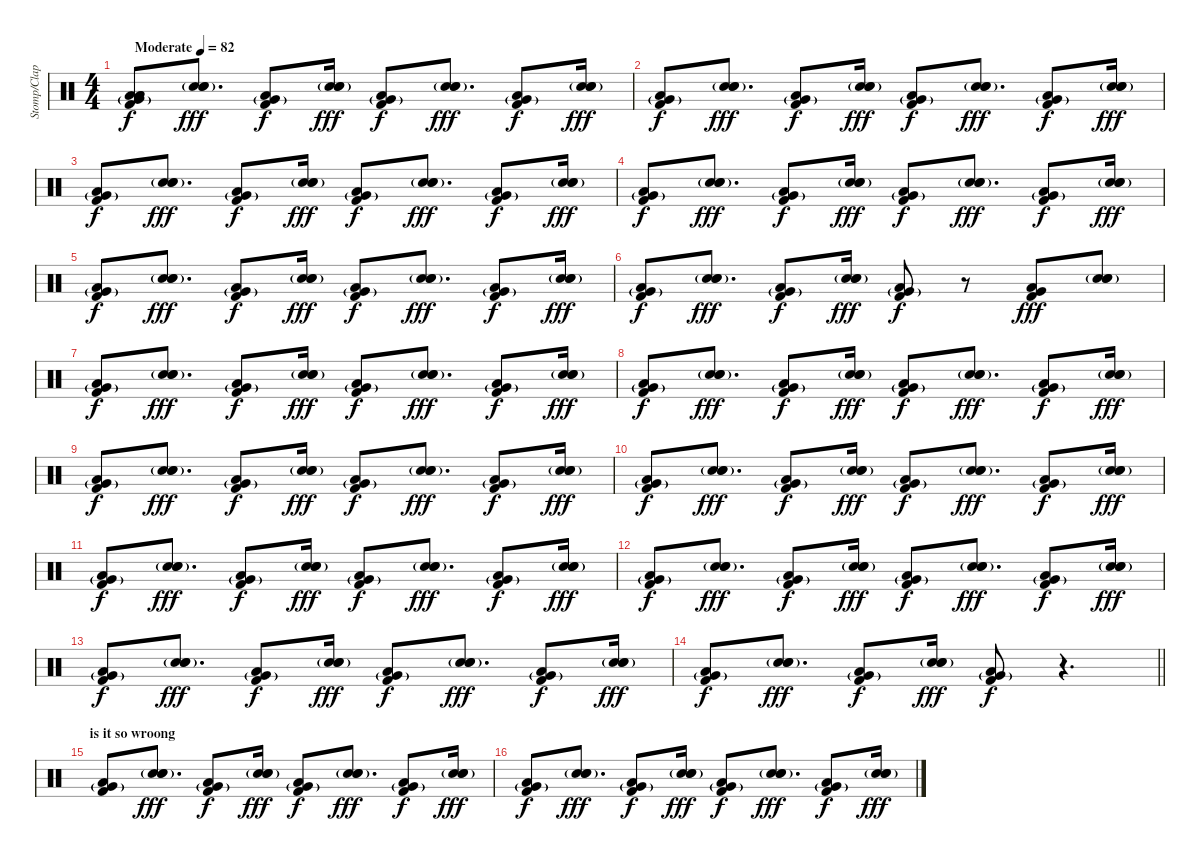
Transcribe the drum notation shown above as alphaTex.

\track ("Stomp/Clap" "Stomp/Clap") {instrument percussion}
\staff {score}
\articulation defaults
\ts (4 4)
\tempo (82 "Moderate")
\clef neutral
\ks c
("Kick (hit) 2" "Low Floor Tom (hit)" "Very Low Tom (hit)"{g} "Low Floor Tom (hit)" "Low Floor Tom (hit)").8{dy f} ("Hand Clap (hit)" "Snare (hit) 2"{g} "Hand Clap (hit)").8{d dy fff} ("Kick (hit) 2" "Low Floor Tom (hit)" "Very Low Tom (hit)"{g}).8{dy f} ("Hand Clap (hit)" "Snare (hit) 2"{g} "Hand Clap (hit)").16{dy fff} ("Kick (hit) 2" "Low Floor Tom (hit)" "Very Low Tom (hit)"{g}).8{dy f} ("Hand Clap (hit)" "Snare (hit) 2"{g} "Hand Clap (hit)").8{d dy fff} ("Kick (hit) 2" "Low Floor Tom (hit)" "Very Low Tom (hit)"{g}).8{dy f} ("Hand Clap (hit)" "Snare (hit) 2"{g} "Hand Clap (hit)").16{dy fff} |
("Kick (hit) 2" "Low Floor Tom (hit)" "Very Low Tom (hit)"{g}).8{dy f} ("Hand Clap (hit)" "Snare (hit) 2"{g} "Hand Clap (hit)").8{d dy fff} ("Kick (hit) 2" "Low Floor Tom (hit)" "Very Low Tom (hit)"{g}).8{dy f} ("Hand Clap (hit)" "Snare (hit) 2"{g} "Hand Clap (hit)").16{dy fff} ("Kick (hit) 2" "Low Floor Tom (hit)" "Very Low Tom (hit)"{g}).8{dy f} ("Hand Clap (hit)" "Snare (hit) 2"{g} "Hand Clap (hit)").8{d dy fff} ("Kick (hit) 2" "Low Floor Tom (hit)" "Very Low Tom (hit)"{g}).8{dy f} ("Hand Clap (hit)" "Snare (hit) 2"{g} "Hand Clap (hit)").16{dy fff} |
("Kick (hit) 2" "Low Floor Tom (hit)" "Very Low Tom (hit)"{g}).8{dy f} ("Hand Clap (hit)" "Snare (hit) 2"{g} "Hand Clap (hit)").8{d dy fff} ("Kick (hit) 2" "Low Floor Tom (hit)" "Very Low Tom (hit)"{g}).8{dy f} ("Hand Clap (hit)" "Snare (hit) 2"{g} "Hand Clap (hit)").16{dy fff} ("Kick (hit) 2" "Low Floor Tom (hit)" "Very Low Tom (hit)"{g}).8{dy f} ("Hand Clap (hit)" "Snare (hit) 2"{g} "Hand Clap (hit)").8{d dy fff} ("Kick (hit) 2" "Low Floor Tom (hit)" "Very Low Tom (hit)"{g}).8{dy f} ("Hand Clap (hit)" "Snare (hit) 2"{g} "Hand Clap (hit)").16{dy fff} |
("Kick (hit) 2" "Low Floor Tom (hit)" "Very Low Tom (hit)"{g}).8{dy f} ("Hand Clap (hit)" "Snare (hit) 2"{g} "Hand Clap (hit)").8{d dy fff} ("Kick (hit) 2" "Low Floor Tom (hit)" "Very Low Tom (hit)"{g}).8{dy f} ("Hand Clap (hit)" "Snare (hit) 2"{g} "Hand Clap (hit)").16{dy fff} ("Kick (hit) 2" "Low Floor Tom (hit)" "Very Low Tom (hit)"{g}).8{dy f} ("Hand Clap (hit)" "Snare (hit) 2"{g} "Hand Clap (hit)").8{d dy fff} ("Kick (hit) 2" "Low Floor Tom (hit)" "Very Low Tom (hit)"{g}).8{dy f} ("Hand Clap (hit)" "Snare (hit) 2"{g} "Hand Clap (hit)").16{dy fff} |
("Kick (hit) 2" "Low Floor Tom (hit)" "Very Low Tom (hit)"{g}).8{dy f} ("Hand Clap (hit)" "Snare (hit) 2"{g} "Hand Clap (hit)").8{d dy fff} ("Kick (hit) 2" "Low Floor Tom (hit)" "Very Low Tom (hit)"{g}).8{dy f} ("Hand Clap (hit)" "Snare (hit) 2"{g} "Hand Clap (hit)").16{dy fff} ("Kick (hit) 2" "Low Floor Tom (hit)" "Very Low Tom (hit)"{g}).8{dy f} ("Hand Clap (hit)" "Snare (hit) 2"{g} "Hand Clap (hit)").8{d dy fff} ("Kick (hit) 2" "Low Floor Tom (hit)" "Very Low Tom (hit)"{g}).8{dy f} ("Hand Clap (hit)" "Snare (hit) 2"{g} "Hand Clap (hit)").16{dy fff} |
("Kick (hit) 2" "Low Floor Tom (hit)" "Very Low Tom (hit)"{g}).8{dy f} ("Hand Clap (hit)" "Snare (hit) 2"{g} "Hand Clap (hit)").8{d dy fff} ("Kick (hit) 2" "Low Floor Tom (hit)" "Very Low Tom (hit)"{g}).8{dy f} ("Hand Clap (hit)" "Snare (hit) 2"{g} "Hand Clap (hit)").16{dy fff} ("Kick (hit) 2" "Low Floor Tom (hit)" "Very Low Tom (hit)"{g}).8{dy f} r.8 ("Kick (hit) 2" "Low Floor Tom (hit)" "Very Low Tom (hit)").8{dy fff} ("Hand Clap (hit)" "Snare (hit) 2"{g} "Hand Clap (hit)").8 |
("Kick (hit) 2" "Low Floor Tom (hit)" "Very Low Tom (hit)"{g}).8{dy f} ("Hand Clap (hit)" "Snare (hit) 2"{g} "Hand Clap (hit)").8{d dy fff} ("Kick (hit) 2" "Low Floor Tom (hit)" "Very Low Tom (hit)"{g}).8{dy f} ("Hand Clap (hit)" "Snare (hit) 2"{g} "Hand Clap (hit)").16{dy fff} ("Kick (hit) 2" "Low Floor Tom (hit)" "Very Low Tom (hit)"{g}).8{dy f} ("Hand Clap (hit)" "Snare (hit) 2"{g} "Hand Clap (hit)").8{d dy fff} ("Kick (hit) 2" "Low Floor Tom (hit)" "Very Low Tom (hit)"{g}).8{dy f} ("Hand Clap (hit)" "Snare (hit) 2"{g} "Hand Clap (hit)").16{dy fff} |
("Kick (hit) 2" "Low Floor Tom (hit)" "Very Low Tom (hit)"{g}).8{dy f} ("Hand Clap (hit)" "Snare (hit) 2"{g} "Hand Clap (hit)").8{d dy fff} ("Kick (hit) 2" "Low Floor Tom (hit)" "Very Low Tom (hit)"{g}).8{dy f} ("Hand Clap (hit)" "Snare (hit) 2"{g} "Hand Clap (hit)").16{dy fff} ("Kick (hit) 2" "Low Floor Tom (hit)" "Very Low Tom (hit)"{g}).8{dy f} ("Hand Clap (hit)" "Snare (hit) 2"{g} "Hand Clap (hit)").8{d dy fff} ("Kick (hit) 2" "Low Floor Tom (hit)" "Very Low Tom (hit)"{g}).8{dy f} ("Hand Clap (hit)" "Snare (hit) 2"{g} "Hand Clap (hit)").16{dy fff} |
("Kick (hit) 2" "Low Floor Tom (hit)" "Very Low Tom (hit)"{g}).8{dy f} ("Hand Clap (hit)" "Snare (hit) 2"{g} "Hand Clap (hit)").8{d dy fff} ("Kick (hit) 2" "Low Floor Tom (hit)" "Very Low Tom (hit)"{g}).8{dy f} ("Hand Clap (hit)" "Snare (hit) 2"{g} "Hand Clap (hit)").16{dy fff} ("Kick (hit) 2" "Low Floor Tom (hit)" "Very Low Tom (hit)"{g}).8{dy f} ("Hand Clap (hit)" "Snare (hit) 2"{g} "Hand Clap (hit)").8{d dy fff} ("Kick (hit) 2" "Low Floor Tom (hit)" "Very Low Tom (hit)"{g}).8{dy f} ("Hand Clap (hit)" "Snare (hit) 2"{g} "Hand Clap (hit)").16{dy fff} |
("Kick (hit) 2" "Low Floor Tom (hit)" "Very Low Tom (hit)"{g}).8{dy f} ("Hand Clap (hit)" "Snare (hit) 2"{g} "Hand Clap (hit)").8{d dy fff} ("Kick (hit) 2" "Low Floor Tom (hit)" "Very Low Tom (hit)"{g}).8{dy f} ("Hand Clap (hit)" "Snare (hit) 2"{g} "Hand Clap (hit)").16{dy fff} ("Kick (hit) 2" "Low Floor Tom (hit)" "Very Low Tom (hit)"{g}).8{dy f} ("Hand Clap (hit)" "Snare (hit) 2"{g} "Hand Clap (hit)").8{d dy fff} ("Kick (hit) 2" "Low Floor Tom (hit)" "Very Low Tom (hit)"{g}).8{dy f} ("Hand Clap (hit)" "Snare (hit) 2"{g} "Hand Clap (hit)").16{dy fff} |
("Kick (hit) 2" "Low Floor Tom (hit)" "Very Low Tom (hit)"{g}).8{dy f} ("Hand Clap (hit)" "Snare (hit) 2"{g} "Hand Clap (hit)").8{d dy fff} ("Kick (hit) 2" "Low Floor Tom (hit)" "Very Low Tom (hit)"{g}).8{dy f} ("Hand Clap (hit)" "Snare (hit) 2"{g} "Hand Clap (hit)").16{dy fff} ("Kick (hit) 2" "Low Floor Tom (hit)" "Very Low Tom (hit)"{g}).8{dy f} ("Hand Clap (hit)" "Snare (hit) 2"{g} "Hand Clap (hit)").8{d dy fff} ("Kick (hit) 2" "Low Floor Tom (hit)" "Very Low Tom (hit)"{g}).8{dy f} ("Hand Clap (hit)" "Snare (hit) 2"{g} "Hand Clap (hit)").16{dy fff} |
("Kick (hit) 2" "Low Floor Tom (hit)" "Very Low Tom (hit)"{g}).8{dy f} ("Hand Clap (hit)" "Snare (hit) 2"{g} "Hand Clap (hit)").8{d dy fff} ("Kick (hit) 2" "Low Floor Tom (hit)" "Very Low Tom (hit)"{g}).8{dy f} ("Hand Clap (hit)" "Snare (hit) 2"{g} "Hand Clap (hit)").16{dy fff} ("Kick (hit) 2" "Low Floor Tom (hit)" "Very Low Tom (hit)"{g}).8{dy f} ("Hand Clap (hit)" "Snare (hit) 2"{g} "Hand Clap (hit)").8{d dy fff} ("Kick (hit) 2" "Low Floor Tom (hit)" "Very Low Tom (hit)"{g}).8{dy f} ("Hand Clap (hit)" "Snare (hit) 2"{g} "Hand Clap (hit)").16{dy fff} |
("Kick (hit) 2" "Low Floor Tom (hit)" "Very Low Tom (hit)"{g}).8{dy f} ("Hand Clap (hit)" "Snare (hit) 2"{g} "Hand Clap (hit)").8{d dy fff} ("Kick (hit) 2" "Low Floor Tom (hit)" "Very Low Tom (hit)"{g}).8{dy f} ("Hand Clap (hit)" "Snare (hit) 2"{g} "Hand Clap (hit)").16{dy fff} ("Kick (hit) 2" "Low Floor Tom (hit)" "Very Low Tom (hit)"{g}).8{dy f} ("Hand Clap (hit)" "Snare (hit) 2"{g} "Hand Clap (hit)").8{d dy fff} ("Kick (hit) 2" "Low Floor Tom (hit)" "Very Low Tom (hit)"{g}).8{dy f} ("Hand Clap (hit)" "Snare (hit) 2"{g} "Hand Clap (hit)").16{dy fff} |
\barLineRight lightlight
("Kick (hit) 2" "Low Floor Tom (hit)" "Very Low Tom (hit)"{g}).8{dy f} ("Hand Clap (hit)" "Snare (hit) 2"{g} "Hand Clap (hit)").8{d dy fff} ("Kick (hit) 2" "Low Floor Tom (hit)" "Very Low Tom (hit)"{g}).8{dy f} ("Hand Clap (hit)" "Snare (hit) 2"{g} "Hand Clap (hit)").16{dy fff} ("Kick (hit) 2" "Low Floor Tom (hit)" "Very Low Tom (hit)"{g}).8{dy f} r.4{d} |
\section ("" "is it so wroong")
("Kick (hit) 2" "Low Floor Tom (hit)" "Very Low Tom (hit)"{g}).8 ("Hand Clap (hit)" "Snare (hit) 2"{g} "Hand Clap (hit)").8{d dy fff} ("Kick (hit) 2" "Low Floor Tom (hit)" "Very Low Tom (hit)"{g}).8{dy f} ("Hand Clap (hit)" "Snare (hit) 2"{g} "Hand Clap (hit)").16{dy fff} ("Kick (hit) 2" "Low Floor Tom (hit)" "Very Low Tom (hit)"{g}).8{dy f} ("Hand Clap (hit)" "Snare (hit) 2"{g} "Hand Clap (hit)").8{d dy fff} ("Kick (hit) 2" "Low Floor Tom (hit)" "Very Low Tom (hit)"{g}).8{dy f} ("Hand Clap (hit)" "Snare (hit) 2"{g} "Hand Clap (hit)").16{dy fff} |
("Kick (hit) 2" "Low Floor Tom (hit)" "Very Low Tom (hit)"{g}).8{dy f} ("Hand Clap (hit)" "Snare (hit) 2"{g} "Hand Clap (hit)").8{d dy fff} ("Kick (hit) 2" "Low Floor Tom (hit)" "Very Low Tom (hit)"{g}).8{dy f} ("Hand Clap (hit)" "Snare (hit) 2"{g} "Hand Clap (hit)").16{dy fff} ("Kick (hit) 2" "Low Floor Tom (hit)" "Very Low Tom (hit)"{g}).8{dy f} ("Hand Clap (hit)" "Snare (hit) 2"{g} "Hand Clap (hit)").8{d dy fff} ("Kick (hit) 2" "Low Floor Tom (hit)" "Very Low Tom (hit)"{g}).8{dy f} ("Hand Clap (hit)" "Snare (hit) 2"{g} "Hand Clap (hit)").16{dy fff}
